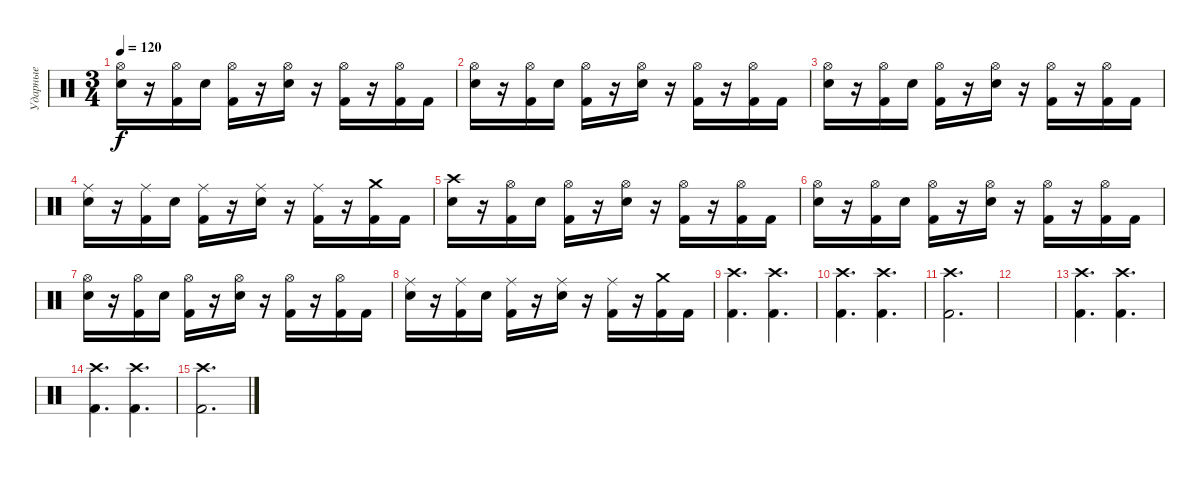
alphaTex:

\track ("Ударные" "Ударные") {instrument percussion}
\staff {score}
\articulation defaults
\ts (3 4)
\tempo 120
\clef neutral
\ks c
("Hi-Hat (open)" "Electric Snare (hit)").16{dy f} r.16 ("Hi-Hat (open)" "Kick (hit) 2").16 "Electric Snare (hit)".16 ("Hi-Hat (open)" "Kick (hit) 2").16 r.16 ("Hi-Hat (open)" "Electric Snare (hit)").16 r.16 ("Hi-Hat (open)" "Kick (hit) 2").16 r.16 ("Hi-Hat (open)" "Kick (hit) 2").16 "Kick (hit) 2".16 |
("Hi-Hat (open)" "Electric Snare (hit)").16 r.16 ("Hi-Hat (open)" "Kick (hit) 2").16 "Electric Snare (hit)".16 ("Hi-Hat (open)" "Kick (hit) 2").16 r.16 ("Hi-Hat (open)" "Electric Snare (hit)").16 r.16 ("Hi-Hat (open)" "Kick (hit) 2").16 r.16 ("Hi-Hat (open)" "Kick (hit) 2").16 "Kick (hit) 2".16 |
("Hi-Hat (open)" "Electric Snare (hit)").16 r.16 ("Hi-Hat (open)" "Kick (hit) 2").16 "Electric Snare (hit)".16 ("Hi-Hat (open)" "Kick (hit) 2").16 r.16 ("Hi-Hat (open)" "Electric Snare (hit)").16 r.16 ("Hi-Hat (open)" "Kick (hit) 2").16 r.16 ("Hi-Hat (open)" "Kick (hit) 2").16 "Kick (hit) 2".16 |
("Ride (middle)" "Electric Snare (hit)").16 r.16 ("Ride (middle)" "Kick (hit) 2").16 "Electric Snare (hit)".16 ("Ride (middle)" "Kick (hit) 2").16 r.16 ("Ride (middle)" "Electric Snare (hit)").16 r.16 ("Ride (middle)" "Kick (hit) 2").16 r.16 ("Crash medium (hit)" "Kick (hit) 2").16 "Kick (hit) 2".16 |
("Crash high (hit)" "Electric Snare (hit)").16 r.16 ("Hi-Hat (open)" "Kick (hit) 2").16 "Electric Snare (hit)".16 ("Hi-Hat (open)" "Kick (hit) 2").16 r.16 ("Hi-Hat (open)" "Electric Snare (hit)").16 r.16 ("Hi-Hat (open)" "Kick (hit) 2").16 r.16 ("Hi-Hat (open)" "Kick (hit) 2").16 "Kick (hit) 2".16 |
("Hi-Hat (open)" "Electric Snare (hit)").16 r.16 ("Hi-Hat (open)" "Kick (hit) 2").16 "Electric Snare (hit)".16 ("Hi-Hat (open)" "Kick (hit) 2").16 r.16 ("Hi-Hat (open)" "Electric Snare (hit)").16 r.16 ("Hi-Hat (open)" "Kick (hit) 2").16 r.16 ("Hi-Hat (open)" "Kick (hit) 2").16 "Kick (hit) 2".16 |
("Hi-Hat (open)" "Electric Snare (hit)").16 r.16 ("Hi-Hat (open)" "Kick (hit) 2").16 "Electric Snare (hit)".16 ("Hi-Hat (open)" "Kick (hit) 2").16 r.16 ("Hi-Hat (open)" "Electric Snare (hit)").16 r.16 ("Hi-Hat (open)" "Kick (hit) 2").16 r.16 ("Hi-Hat (open)" "Kick (hit) 2").16 "Kick (hit) 2".16 |
("Ride (middle)" "Electric Snare (hit)").16 r.16 ("Ride (middle)" "Kick (hit) 2").16 "Electric Snare (hit)".16 ("Ride (middle)" "Kick (hit) 2").16 r.16 ("Ride (middle)" "Electric Snare (hit)").16 r.16 ("Ride (middle)" "Kick (hit) 2").16 r.16 ("Crash medium (hit)" "Kick (hit) 2").16 "Kick (hit) 2".16 |
("Crash high (hit)" "Kick (hit) 2").4{d} ("Crash high (hit)" "Kick (hit) 2").4{d} |
("Crash high (hit)" "Kick (hit) 2").4{d} ("Crash high (hit)" "Kick (hit) 2").4{d} |
("Crash high (hit)" "Kick (hit) 2").2{d} |
|
("Crash high (hit)" "Kick (hit) 2").4{d} ("Crash high (hit)" "Kick (hit) 2").4{d} |
("Crash high (hit)" "Kick (hit) 2").4{d} ("Crash high (hit)" "Kick (hit) 2").4{d} |
("Crash high (hit)" "Kick (hit) 2").2{d}
